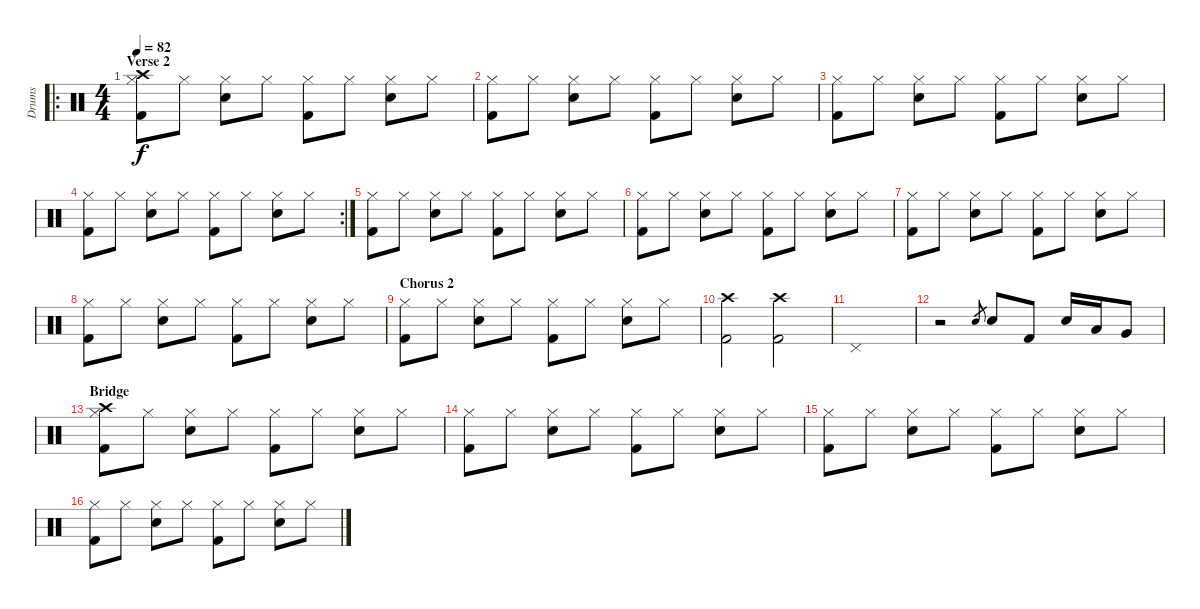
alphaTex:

\track ("Drums" "Drums") {instrument percussion}
\staff {score}
\articulation defaults
\ro
\ts (4 4)
\section ("" "Verse 2")
\tempo 82
\clef neutral
\ks c
("Hi-Hat (closed)" "Kick (hit) 2" "Crash high (hit)").8{dy f} "Hi-Hat (closed)".8 ("Hi-Hat (closed)" "Snare (hit) 2").8 "Hi-Hat (closed)".8 ("Hi-Hat (closed)" "Kick (hit) 2").8 "Hi-Hat (closed)".8 ("Hi-Hat (closed)" "Snare (hit) 2").8 "Hi-Hat (closed)".8 |
("Hi-Hat (closed)" "Kick (hit) 2").8 "Hi-Hat (closed)".8 ("Hi-Hat (closed)" "Snare (hit) 2").8 "Hi-Hat (closed)".8 ("Hi-Hat (closed)" "Kick (hit) 2").8 "Hi-Hat (closed)".8 ("Hi-Hat (closed)" "Snare (hit) 2").8 "Hi-Hat (closed)".8 |
("Hi-Hat (closed)" "Kick (hit) 2").8 "Hi-Hat (closed)".8 ("Hi-Hat (closed)" "Snare (hit) 2").8 "Hi-Hat (closed)".8 ("Hi-Hat (closed)" "Kick (hit) 2").8 "Hi-Hat (closed)".8 ("Hi-Hat (closed)" "Snare (hit) 2").8 "Hi-Hat (closed)".8 |
\rc 2
("Hi-Hat (closed)" "Kick (hit) 2").8 "Hi-Hat (closed)".8 ("Hi-Hat (closed)" "Snare (hit) 2").8 "Hi-Hat (closed)".8 ("Hi-Hat (closed)" "Kick (hit) 2").8 "Hi-Hat (closed)".8 ("Hi-Hat (closed)" "Snare (hit) 2").8 "Hi-Hat (closed)".8 |
("Hi-Hat (closed)" "Kick (hit) 2").8 "Hi-Hat (closed)".8 ("Hi-Hat (closed)" "Snare (hit) 2").8 "Hi-Hat (closed)".8 ("Hi-Hat (closed)" "Kick (hit) 2").8 "Hi-Hat (closed)".8 ("Hi-Hat (closed)" "Snare (hit) 2").8 "Hi-Hat (closed)".8 |
("Hi-Hat (closed)" "Kick (hit) 2").8 "Hi-Hat (closed)".8 ("Hi-Hat (closed)" "Snare (hit) 2").8 "Hi-Hat (closed)".8 ("Hi-Hat (closed)" "Kick (hit) 2").8 "Hi-Hat (closed)".8 ("Hi-Hat (closed)" "Snare (hit) 2").8 "Hi-Hat (closed)".8 |
("Hi-Hat (closed)" "Kick (hit) 2").8 "Hi-Hat (closed)".8 ("Hi-Hat (closed)" "Snare (hit) 2").8 "Hi-Hat (closed)".8 ("Hi-Hat (closed)" "Kick (hit) 2").8 "Hi-Hat (closed)".8 ("Hi-Hat (closed)" "Snare (hit) 2").8 "Hi-Hat (closed)".8 |
("Hi-Hat (closed)" "Kick (hit) 2").8 "Hi-Hat (closed)".8 ("Hi-Hat (closed)" "Snare (hit) 2").8 "Hi-Hat (closed)".8 ("Hi-Hat (closed)" "Kick (hit) 2").8 "Hi-Hat (closed)".8 ("Hi-Hat (closed)" "Snare (hit) 2").8 "Hi-Hat (closed)".8 |
\section ("" "Chorus 2")
("Hi-Hat (closed)" "Kick (hit) 2").8 "Hi-Hat (closed)".8 ("Hi-Hat (closed)" "Snare (hit) 2").8 "Hi-Hat (closed)".8 ("Hi-Hat (closed)" "Kick (hit) 2").8 "Hi-Hat (closed)".8 ("Hi-Hat (closed)" "Snare (hit) 2").8 "Hi-Hat (closed)".8 |
("Kick (hit) 2" "Crash high (hit)").2 ("Kick (hit) 2" "Crash high (hit)").2 |
"Pedal Hi-Hat (hit)".1 |
r.2 "Snare (hit) 2".8{gr} "Snare (hit) 2".8 "Kick (hit) 2".8 "Snare (hit) 2".16 "Low Tom (hit)".16 "Very Low Tom (hit)".8 |
\section ("" "Bridge")
("Hi-Hat (closed)" "Kick (hit) 2" "Crash high (hit)").8 "Hi-Hat (closed)".8 ("Hi-Hat (closed)" "Snare (hit) 2").8 "Hi-Hat (closed)".8 ("Hi-Hat (closed)" "Kick (hit) 2").8 "Hi-Hat (closed)".8 ("Hi-Hat (closed)" "Snare (hit) 2").8 "Hi-Hat (closed)".8 |
("Hi-Hat (closed)" "Kick (hit) 2").8 "Hi-Hat (closed)".8 ("Hi-Hat (closed)" "Snare (hit) 2").8 "Hi-Hat (closed)".8 ("Hi-Hat (closed)" "Kick (hit) 2").8 "Hi-Hat (closed)".8 ("Hi-Hat (closed)" "Snare (hit) 2").8 "Hi-Hat (closed)".8 |
("Hi-Hat (closed)" "Kick (hit) 2").8 "Hi-Hat (closed)".8 ("Hi-Hat (closed)" "Snare (hit) 2").8 "Hi-Hat (closed)".8 ("Hi-Hat (closed)" "Kick (hit) 2").8 "Hi-Hat (closed)".8 ("Hi-Hat (closed)" "Snare (hit) 2").8 "Hi-Hat (closed)".8 |
("Hi-Hat (closed)" "Kick (hit) 2").8 "Hi-Hat (closed)".8 ("Hi-Hat (closed)" "Snare (hit) 2").8 "Hi-Hat (closed)".8 ("Hi-Hat (closed)" "Kick (hit) 2").8 "Hi-Hat (closed)".8 ("Hi-Hat (closed)" "Snare (hit) 2").8 "Hi-Hat (closed)".8
